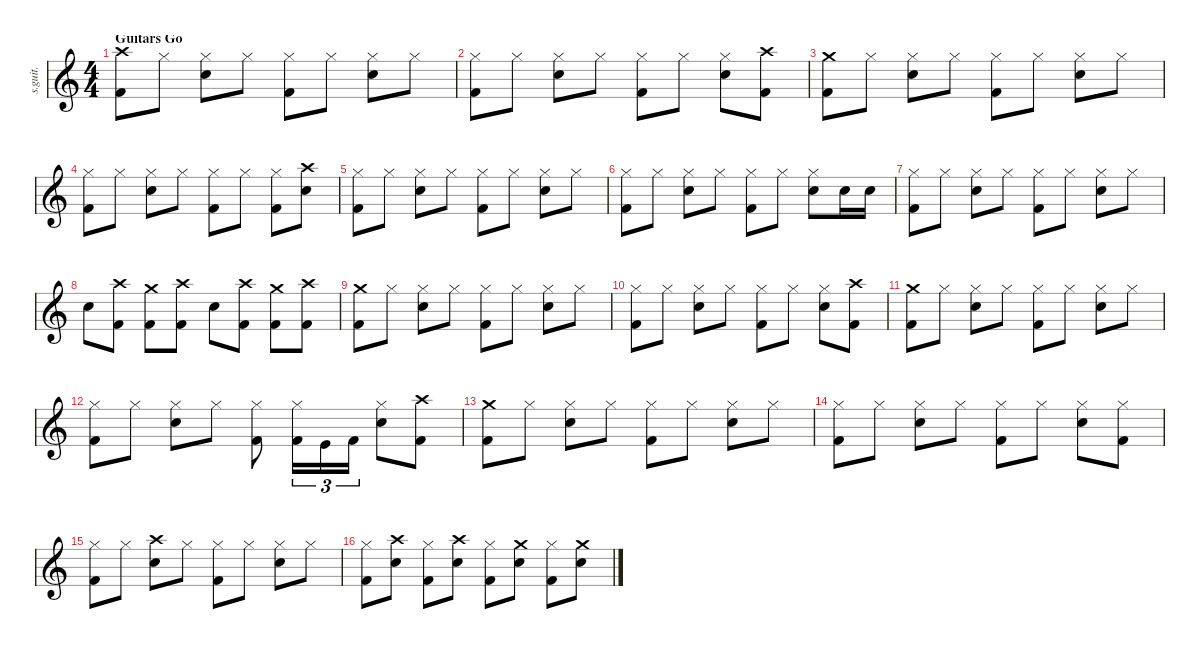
\defaultSystemsLayout 4
\hideDynamics
\bracketExtendMode nobrackets
\track ("Drumkit" "s.guit.") {instrument percussion}
\staff {score}
\articulation defaults
\ts (4 4)
\section ("" "Guitars Go")
\tempo (130 hide)
\clef g2
\ks c
("Crash high (hit)" "Kick (hit) 2").8{lyrics (0 "") lyrics (1 "") lyrics (2 "") lyrics (3 "") lyrics (4 "") dy f} "Hi-Hat (closed)".8{lyrics (0 "") lyrics (1 "") lyrics (2 "") lyrics (3 "") lyrics (4 "")} ("Hi-Hat (closed)" "Snare (hit) 2").8{lyrics (0 "") lyrics (1 "") lyrics (2 "") lyrics (3 "") lyrics (4 "")} "Hi-Hat (closed)".8{lyrics (0 "") lyrics (1 "") lyrics (2 "") lyrics (3 "") lyrics (4 "")} ("Hi-Hat (closed)" "Kick (hit) 2").8{lyrics (0 "") lyrics (1 "") lyrics (2 "") lyrics (3 "") lyrics (4 "")} "Hi-Hat (closed)".8{lyrics (0 "") lyrics (1 "") lyrics (2 "") lyrics (3 "") lyrics (4 "")} ("Hi-Hat (closed)" "Snare (hit) 2").8{lyrics (0 "") lyrics (1 "") lyrics (2 "") lyrics (3 "") lyrics (4 "")} "Hi-Hat (closed)".8{lyrics (0 "") lyrics (1 "") lyrics (2 "") lyrics (3 "") lyrics (4 "")} |
("Hi-Hat (closed)" "Kick (hit) 2").8{lyrics (0 "") lyrics (1 "") lyrics (2 "") lyrics (3 "") lyrics (4 "")} "Hi-Hat (closed)".8{lyrics (0 "") lyrics (1 "") lyrics (2 "") lyrics (3 "") lyrics (4 "")} ("Hi-Hat (closed)" "Snare (hit) 2").8{lyrics (0 "") lyrics (1 "") lyrics (2 "") lyrics (3 "") lyrics (4 "")} "Hi-Hat (closed)".8{lyrics (0 "") lyrics (1 "") lyrics (2 "") lyrics (3 "") lyrics (4 "")} ("Hi-Hat (closed)" "Kick (hit) 2").8{lyrics (0 "") lyrics (1 "") lyrics (2 "") lyrics (3 "") lyrics (4 "")} "Hi-Hat (closed)".8{lyrics (0 "") lyrics (1 "") lyrics (2 "") lyrics (3 "") lyrics (4 "")} ("Hi-Hat (closed)" "Snare (hit) 2").8{lyrics (0 "") lyrics (1 "") lyrics (2 "") lyrics (3 "") lyrics (4 "")} ("Crash high (hit)" "Kick (hit) 2").8{lyrics (0 "") lyrics (1 "") lyrics (2 "") lyrics (3 "") lyrics (4 "")} |
("Crash medium (hit)" "Kick (hit) 2").8{lyrics (0 "") lyrics (1 "") lyrics (2 "") lyrics (3 "") lyrics (4 "")} "Hi-Hat (closed)".8{lyrics (0 "") lyrics (1 "") lyrics (2 "") lyrics (3 "") lyrics (4 "")} ("Hi-Hat (closed)" "Snare (hit) 2").8{lyrics (0 "") lyrics (1 "") lyrics (2 "") lyrics (3 "") lyrics (4 "")} "Hi-Hat (closed)".8{lyrics (0 "") lyrics (1 "") lyrics (2 "") lyrics (3 "") lyrics (4 "")} ("Hi-Hat (closed)" "Kick (hit) 2").8{lyrics (0 "") lyrics (1 "") lyrics (2 "") lyrics (3 "") lyrics (4 "")} "Hi-Hat (closed)".8{lyrics (0 "") lyrics (1 "") lyrics (2 "") lyrics (3 "") lyrics (4 "")} ("Hi-Hat (closed)" "Snare (hit) 2").8{lyrics (0 "") lyrics (1 "") lyrics (2 "") lyrics (3 "") lyrics (4 "")} "Hi-Hat (closed)".8{lyrics (0 "") lyrics (1 "") lyrics (2 "") lyrics (3 "") lyrics (4 "")} |
("Hi-Hat (closed)" "Kick (hit) 2").8{lyrics (0 "") lyrics (1 "") lyrics (2 "") lyrics (3 "") lyrics (4 "")} "Hi-Hat (closed)".8{lyrics (0 "") lyrics (1 "") lyrics (2 "") lyrics (3 "") lyrics (4 "")} ("Hi-Hat (closed)" "Snare (hit) 2").8{lyrics (0 "") lyrics (1 "") lyrics (2 "") lyrics (3 "") lyrics (4 "")} "Hi-Hat (closed)".8{lyrics (0 "") lyrics (1 "") lyrics (2 "") lyrics (3 "") lyrics (4 "")} ("Hi-Hat (closed)" "Kick (hit) 2").8{lyrics (0 "") lyrics (1 "") lyrics (2 "") lyrics (3 "") lyrics (4 "")} "Hi-Hat (closed)".8{lyrics (0 "") lyrics (1 "") lyrics (2 "") lyrics (3 "") lyrics (4 "")} ("Hi-Hat (closed)" "Kick (hit) 2").8{lyrics (0 "") lyrics (1 "") lyrics (2 "") lyrics (3 "") lyrics (4 "")} ("Crash high (hit)" "Snare (hit) 2").8{lyrics (0 "") lyrics (1 "") lyrics (2 "") lyrics (3 "") lyrics (4 "")} |
("Hi-Hat (closed)" "Kick (hit) 2").8{lyrics (0 "") lyrics (1 "") lyrics (2 "") lyrics (3 "") lyrics (4 "")} "Hi-Hat (closed)".8{lyrics (0 "") lyrics (1 "") lyrics (2 "") lyrics (3 "") lyrics (4 "")} ("Hi-Hat (closed)" "Snare (hit) 2").8{lyrics (0 "") lyrics (1 "") lyrics (2 "") lyrics (3 "") lyrics (4 "")} "Hi-Hat (closed)".8{lyrics (0 "") lyrics (1 "") lyrics (2 "") lyrics (3 "") lyrics (4 "")} ("Hi-Hat (closed)" "Kick (hit) 2").8{lyrics (0 "") lyrics (1 "") lyrics (2 "") lyrics (3 "") lyrics (4 "")} "Hi-Hat (closed)".8{lyrics (0 "") lyrics (1 "") lyrics (2 "") lyrics (3 "") lyrics (4 "")} ("Hi-Hat (closed)" "Snare (hit) 2").8{lyrics (0 "") lyrics (1 "") lyrics (2 "") lyrics (3 "") lyrics (4 "")} "Hi-Hat (closed)".8{lyrics (0 "") lyrics (1 "") lyrics (2 "") lyrics (3 "") lyrics (4 "")} |
("Hi-Hat (closed)" "Kick (hit) 2").8{lyrics (0 "") lyrics (1 "") lyrics (2 "") lyrics (3 "") lyrics (4 "")} "Hi-Hat (closed)".8{lyrics (0 "") lyrics (1 "") lyrics (2 "") lyrics (3 "") lyrics (4 "")} ("Hi-Hat (closed)" "Snare (hit) 2").8{lyrics (0 "") lyrics (1 "") lyrics (2 "") lyrics (3 "") lyrics (4 "")} "Hi-Hat (closed)".8{lyrics (0 "") lyrics (1 "") lyrics (2 "") lyrics (3 "") lyrics (4 "")} ("Hi-Hat (closed)" "Kick (hit) 2").8{lyrics (0 "") lyrics (1 "") lyrics (2 "") lyrics (3 "") lyrics (4 "")} "Hi-Hat (closed)".8{lyrics (0 "") lyrics (1 "") lyrics (2 "") lyrics (3 "") lyrics (4 "")} ("Hi-Hat (closed)" "Snare (hit) 2").8{lyrics (0 "") lyrics (1 "") lyrics (2 "") lyrics (3 "") lyrics (4 "")} "Snare (hit) 2".16{lyrics (0 "") lyrics (1 "") lyrics (2 "") lyrics (3 "") lyrics (4 "")} "Snare (hit) 2".16{lyrics (0 "") lyrics (1 "") lyrics (2 "") lyrics (3 "") lyrics (4 "")} |
("Hi-Hat (closed)" "Kick (hit) 2").8{lyrics (0 "") lyrics (1 "") lyrics (2 "") lyrics (3 "") lyrics (4 "")} "Hi-Hat (closed)".8{lyrics (0 "") lyrics (1 "") lyrics (2 "") lyrics (3 "") lyrics (4 "")} ("Hi-Hat (closed)" "Snare (hit) 2").8{lyrics (0 "") lyrics (1 "") lyrics (2 "") lyrics (3 "") lyrics (4 "")} "Hi-Hat (closed)".8{lyrics (0 "") lyrics (1 "") lyrics (2 "") lyrics (3 "") lyrics (4 "")} ("Hi-Hat (closed)" "Kick (hit) 2").8{lyrics (0 "") lyrics (1 "") lyrics (2 "") lyrics (3 "") lyrics (4 "")} "Hi-Hat (closed)".8{lyrics (0 "") lyrics (1 "") lyrics (2 "") lyrics (3 "") lyrics (4 "")} ("Hi-Hat (closed)" "Snare (hit) 2").8{lyrics (0 "") lyrics (1 "") lyrics (2 "") lyrics (3 "") lyrics (4 "")} "Hi-Hat (closed)".8{lyrics (0 "") lyrics (1 "") lyrics (2 "") lyrics (3 "") lyrics (4 "")} |
"Snare (hit) 2".8{lyrics (0 "") lyrics (1 "") lyrics (2 "") lyrics (3 "") lyrics (4 "")} ("Crash high (hit)" "Kick (hit) 2").8{lyrics (0 "") lyrics (1 "") lyrics (2 "") lyrics (3 "") lyrics (4 "")} ("Crash medium (hit)" "Kick (hit) 2").8{lyrics (0 "") lyrics (1 "") lyrics (2 "") lyrics (3 "") lyrics (4 "")} ("Crash high (hit)" "Kick (hit) 2").8{lyrics (0 "") lyrics (1 "") lyrics (2 "") lyrics (3 "") lyrics (4 "")} "Snare (hit) 2".8{lyrics (0 "") lyrics (1 "") lyrics (2 "") lyrics (3 "") lyrics (4 "")} ("Crash high (hit)" "Kick (hit) 2").8{lyrics (0 "") lyrics (1 "") lyrics (2 "") lyrics (3 "") lyrics (4 "")} ("Crash medium (hit)" "Kick (hit) 2").8{lyrics (0 "") lyrics (1 "") lyrics (2 "") lyrics (3 "") lyrics (4 "")} ("Crash high (hit)" "Kick (hit) 2").8{lyrics (0 "") lyrics (1 "") lyrics (2 "") lyrics (3 "") lyrics (4 "")} |
("Crash medium (hit)" "Kick (hit) 2").8{lyrics (0 "") lyrics (1 "") lyrics (2 "") lyrics (3 "") lyrics (4 "")} "Hi-Hat (closed)".8{lyrics (0 "") lyrics (1 "") lyrics (2 "") lyrics (3 "") lyrics (4 "")} ("Hi-Hat (closed)" "Snare (hit) 2").8{lyrics (0 "") lyrics (1 "") lyrics (2 "") lyrics (3 "") lyrics (4 "")} "Hi-Hat (closed)".8{lyrics (0 "") lyrics (1 "") lyrics (2 "") lyrics (3 "") lyrics (4 "")} ("Hi-Hat (closed)" "Kick (hit) 2").8{lyrics (0 "") lyrics (1 "") lyrics (2 "") lyrics (3 "") lyrics (4 "")} "Hi-Hat (closed)".8{lyrics (0 "") lyrics (1 "") lyrics (2 "") lyrics (3 "") lyrics (4 "")} ("Hi-Hat (closed)" "Snare (hit) 2").8{lyrics (0 "") lyrics (1 "") lyrics (2 "") lyrics (3 "") lyrics (4 "")} "Hi-Hat (closed)".8{lyrics (0 "") lyrics (1 "") lyrics (2 "") lyrics (3 "") lyrics (4 "")} |
("Hi-Hat (closed)" "Kick (hit) 2").8{lyrics (0 "") lyrics (1 "") lyrics (2 "") lyrics (3 "") lyrics (4 "")} "Hi-Hat (closed)".8{lyrics (0 "") lyrics (1 "") lyrics (2 "") lyrics (3 "") lyrics (4 "")} ("Hi-Hat (closed)" "Snare (hit) 2").8{lyrics (0 "") lyrics (1 "") lyrics (2 "") lyrics (3 "") lyrics (4 "")} "Hi-Hat (closed)".8{lyrics (0 "") lyrics (1 "") lyrics (2 "") lyrics (3 "") lyrics (4 "")} ("Hi-Hat (closed)" "Kick (hit) 2").8{lyrics (0 "") lyrics (1 "") lyrics (2 "") lyrics (3 "") lyrics (4 "")} "Hi-Hat (closed)".8{lyrics (0 "") lyrics (1 "") lyrics (2 "") lyrics (3 "") lyrics (4 "")} ("Hi-Hat (closed)" "Snare (hit) 2").8{lyrics (0 "") lyrics (1 "") lyrics (2 "") lyrics (3 "") lyrics (4 "")} ("Crash high (hit)" "Kick (hit) 2").8{lyrics (0 "") lyrics (1 "") lyrics (2 "") lyrics (3 "") lyrics (4 "")} |
("Crash medium (hit)" "Kick (hit) 2").8{lyrics (0 "") lyrics (1 "") lyrics (2 "") lyrics (3 "") lyrics (4 "")} "Hi-Hat (closed)".8{lyrics (0 "") lyrics (1 "") lyrics (2 "") lyrics (3 "") lyrics (4 "")} ("Hi-Hat (closed)" "Snare (hit) 2").8{lyrics (0 "") lyrics (1 "") lyrics (2 "") lyrics (3 "") lyrics (4 "")} "Hi-Hat (closed)".8{lyrics (0 "") lyrics (1 "") lyrics (2 "") lyrics (3 "") lyrics (4 "")} ("Hi-Hat (closed)" "Kick (hit) 2").8{lyrics (0 "") lyrics (1 "") lyrics (2 "") lyrics (3 "") lyrics (4 "")} "Hi-Hat (closed)".8{lyrics (0 "") lyrics (1 "") lyrics (2 "") lyrics (3 "") lyrics (4 "")} ("Hi-Hat (closed)" "Snare (hit) 2").8{lyrics (0 "") lyrics (1 "") lyrics (2 "") lyrics (3 "") lyrics (4 "")} "Hi-Hat (closed)".8{lyrics (0 "") lyrics (1 "") lyrics (2 "") lyrics (3 "") lyrics (4 "")} |
("Hi-Hat (closed)" "Kick (hit) 2").8{lyrics (0 "") lyrics (1 "") lyrics (2 "") lyrics (3 "") lyrics (4 "")} "Hi-Hat (closed)".8{lyrics (0 "") lyrics (1 "") lyrics (2 "") lyrics (3 "") lyrics (4 "")} ("Hi-Hat (closed)" "Snare (hit) 2").8{lyrics (0 "") lyrics (1 "") lyrics (2 "") lyrics (3 "") lyrics (4 "")} "Hi-Hat (closed)".8{lyrics (0 "") lyrics (1 "") lyrics (2 "") lyrics (3 "") lyrics (4 "")} ("Hi-Hat (closed)" "Kick (hit) 2").8{lyrics (0 "") lyrics (1 "") lyrics (2 "") lyrics (3 "") lyrics (4 "")} ("Hi-Hat (closed)" "Kick (hit) 2").16{tu (3 2) lyrics (0 "") lyrics (1 "") lyrics (2 "") lyrics (3 "") lyrics (4 "")} "Kick (hit)".16{tu (3 2) lyrics (0 "") lyrics (1 "") lyrics (2 "") lyrics (3 "") lyrics (4 "")} "Kick (hit) 2".16{tu (3 2) lyrics (0 "") lyrics (1 "") lyrics (2 "") lyrics (3 "") lyrics (4 "")} ("Hi-Hat (closed)" "Snare (hit) 2").8{lyrics (0 "") lyrics (1 "") lyrics (2 "") lyrics (3 "") lyrics (4 "")} ("Crash high (hit)" "Kick (hit) 2").8{lyrics (0 "") lyrics (1 "") lyrics (2 "") lyrics (3 "") lyrics (4 "")} |
("Crash medium (hit)" "Kick (hit) 2").8{lyrics (0 "") lyrics (1 "") lyrics (2 "") lyrics (3 "") lyrics (4 "")} "Hi-Hat (closed)".8{lyrics (0 "") lyrics (1 "") lyrics (2 "") lyrics (3 "") lyrics (4 "")} ("Hi-Hat (closed)" "Snare (hit) 2").8{lyrics (0 "") lyrics (1 "") lyrics (2 "") lyrics (3 "") lyrics (4 "")} "Hi-Hat (closed)".8{lyrics (0 "") lyrics (1 "") lyrics (2 "") lyrics (3 "") lyrics (4 "")} ("Hi-Hat (closed)" "Kick (hit) 2").8{lyrics (0 "") lyrics (1 "") lyrics (2 "") lyrics (3 "") lyrics (4 "")} "Hi-Hat (closed)".8{lyrics (0 "") lyrics (1 "") lyrics (2 "") lyrics (3 "") lyrics (4 "")} ("Hi-Hat (closed)" "Snare (hit) 2").8{lyrics (0 "") lyrics (1 "") lyrics (2 "") lyrics (3 "") lyrics (4 "")} "Hi-Hat (closed)".8{lyrics (0 "") lyrics (1 "") lyrics (2 "") lyrics (3 "") lyrics (4 "")} |
("Hi-Hat (closed)" "Kick (hit) 2").8{lyrics (0 "") lyrics (1 "") lyrics (2 "") lyrics (3 "") lyrics (4 "")} "Hi-Hat (closed)".8{lyrics (0 "") lyrics (1 "") lyrics (2 "") lyrics (3 "") lyrics (4 "")} ("Hi-Hat (closed)" "Snare (hit) 2").8{lyrics (0 "") lyrics (1 "") lyrics (2 "") lyrics (3 "") lyrics (4 "")} "Hi-Hat (closed)".8{lyrics (0 "") lyrics (1 "") lyrics (2 "") lyrics (3 "") lyrics (4 "")} ("Hi-Hat (closed)" "Kick (hit) 2").8{lyrics (0 "") lyrics (1 "") lyrics (2 "") lyrics (3 "") lyrics (4 "")} "Hi-Hat (closed)".8{lyrics (0 "") lyrics (1 "") lyrics (2 "") lyrics (3 "") lyrics (4 "")} ("Hi-Hat (closed)" "Snare (hit) 2").8{lyrics (0 "") lyrics (1 "") lyrics (2 "") lyrics (3 "") lyrics (4 "")} ("Hi-Hat (closed)" "Kick (hit) 2").8{lyrics (0 "") lyrics (1 "") lyrics (2 "") lyrics (3 "") lyrics (4 "")} |
("Hi-Hat (closed)" "Kick (hit) 2").8{lyrics (0 "") lyrics (1 "") lyrics (2 "") lyrics (3 "") lyrics (4 "")} "Hi-Hat (closed)".8{lyrics (0 "") lyrics (1 "") lyrics (2 "") lyrics (3 "") lyrics (4 "")} ("Crash high (hit)" "Snare (hit) 2").8{lyrics (0 "") lyrics (1 "") lyrics (2 "") lyrics (3 "") lyrics (4 "")} "Hi-Hat (closed)".8{lyrics (0 "") lyrics (1 "") lyrics (2 "") lyrics (3 "") lyrics (4 "")} ("Hi-Hat (closed)" "Kick (hit) 2").8{lyrics (0 "") lyrics (1 "") lyrics (2 "") lyrics (3 "") lyrics (4 "")} "Hi-Hat (closed)".8{lyrics (0 "") lyrics (1 "") lyrics (2 "") lyrics (3 "") lyrics (4 "")} ("Hi-Hat (closed)" "Snare (hit) 2").8{lyrics (0 "") lyrics (1 "") lyrics (2 "") lyrics (3 "") lyrics (4 "")} "Hi-Hat (closed)".8{lyrics (0 "") lyrics (1 "") lyrics (2 "") lyrics (3 "") lyrics (4 "")} |
("Hi-Hat (closed)" "Kick (hit) 2").8{lyrics (0 "") lyrics (1 "") lyrics (2 "") lyrics (3 "") lyrics (4 "")} ("Crash high (hit)" "Snare (hit) 2").8{lyrics (0 "") lyrics (1 "") lyrics (2 "") lyrics (3 "") lyrics (4 "")} ("Hi-Hat (closed)" "Kick (hit) 2").8{lyrics (0 "") lyrics (1 "") lyrics (2 "") lyrics (3 "") lyrics (4 "")} ("Crash high (hit)" "Snare (hit) 2").8{lyrics (0 "") lyrics (1 "") lyrics (2 "") lyrics (3 "") lyrics (4 "")} ("Hi-Hat (closed)" "Kick (hit) 2").8{lyrics (0 "") lyrics (1 "") lyrics (2 "") lyrics (3 "") lyrics (4 "")} ("Crash medium (hit)" "Snare (hit) 2").8{lyrics (0 "") lyrics (1 "") lyrics (2 "") lyrics (3 "") lyrics (4 "")} ("Hi-Hat (closed)" "Kick (hit) 2").8{lyrics (0 "") lyrics (1 "") lyrics (2 "") lyrics (3 "") lyrics (4 "")} ("Crash medium (hit)" "Snare (hit) 2").8{lyrics (0 "") lyrics (1 "") lyrics (2 "") lyrics (3 "") lyrics (4 "")}
